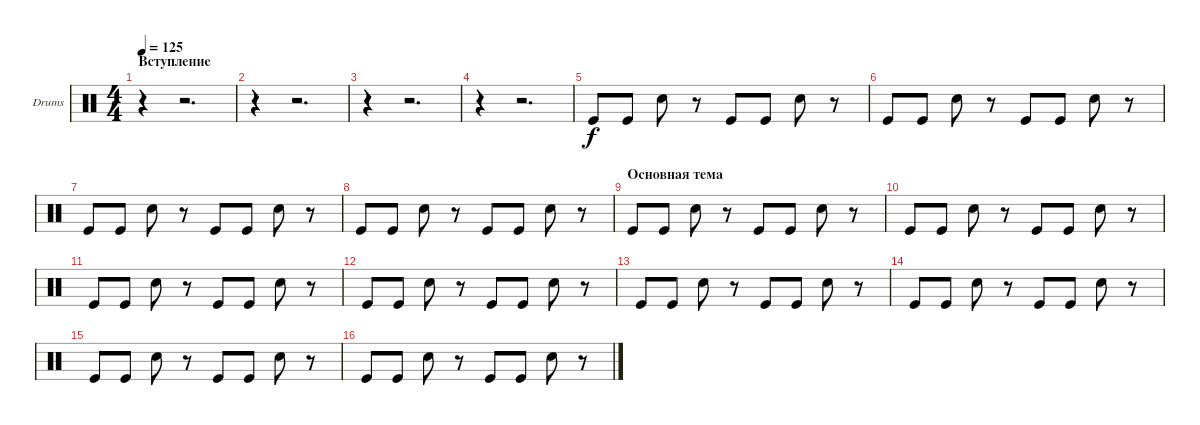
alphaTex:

\defaultSystemsLayout 4
\bracketExtendMode groupsimilarinstruments
\firstSystemTrackNameOrientation horizontal
\otherSystemsTrackNameOrientation horizontal
\track ("Drumkit" "Drums") {instrument percussion}
\staff {score}
\articulation defaults
\ts (4 4)
\section ("" "Вступление")
\tempo 125
\clef neutral
\ks c
r.4{dy f} r.2{d} |
r.4 r.2{d} |
r.4 r.2{d} |
r.4 r.2{d} |
"Kick (hit)".8 "Kick (hit)".8 "Snare (hit) 2".8 r.8 "Kick (hit)".8 "Kick (hit)".8 "Snare (hit) 2".8 r.8 |
"Kick (hit)".8 "Kick (hit)".8 "Snare (hit) 2".8 r.8 "Kick (hit)".8 "Kick (hit)".8 "Snare (hit) 2".8 r.8 |
"Kick (hit)".8 "Kick (hit)".8 "Snare (hit) 2".8 r.8 "Kick (hit)".8 "Kick (hit)".8 "Snare (hit) 2".8 r.8 |
"Kick (hit)".8 "Kick (hit)".8 "Snare (hit) 2".8 r.8 "Kick (hit)".8 "Kick (hit)".8 "Snare (hit) 2".8 r.8 |
\section ("" "Основная тема")
"Kick (hit)".8 "Kick (hit)".8 "Snare (hit) 2".8 r.8 "Kick (hit)".8 "Kick (hit)".8 "Snare (hit) 2".8 r.8 |
"Kick (hit)".8 "Kick (hit)".8 "Snare (hit) 2".8 r.8 "Kick (hit)".8 "Kick (hit)".8 "Snare (hit) 2".8 r.8 |
"Kick (hit)".8 "Kick (hit)".8 "Snare (hit) 2".8 r.8 "Kick (hit)".8 "Kick (hit)".8 "Snare (hit) 2".8 r.8 |
"Kick (hit)".8 "Kick (hit)".8 "Snare (hit) 2".8 r.8 "Kick (hit)".8 "Kick (hit)".8 "Snare (hit) 2".8 r.8 |
"Kick (hit)".8 "Kick (hit)".8 "Snare (hit) 2".8 r.8 "Kick (hit)".8 "Kick (hit)".8 "Snare (hit) 2".8 r.8 |
"Kick (hit)".8 "Kick (hit)".8 "Snare (hit) 2".8 r.8 "Kick (hit)".8 "Kick (hit)".8 "Snare (hit) 2".8 r.8 |
"Kick (hit)".8 "Kick (hit)".8 "Snare (hit) 2".8 r.8 "Kick (hit)".8 "Kick (hit)".8 "Snare (hit) 2".8 r.8 |
"Kick (hit)".8 "Kick (hit)".8 "Snare (hit) 2".8 r.8 "Kick (hit)".8 "Kick (hit)".8 "Snare (hit) 2".8 r.8
